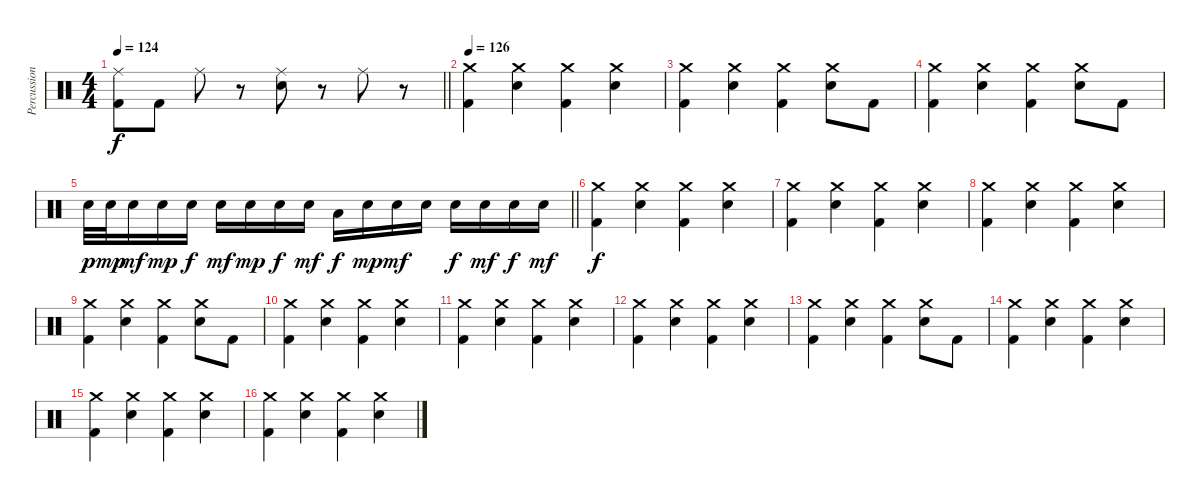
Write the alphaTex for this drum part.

\track ("Percussion" "Percussion") {instrument percussion}
\staff {score}
\articulation defaults
\ts (4 4)
\tempo 124
\clef neutral
\barLineRight lightlight
\ks c
("Ride (middle)" "Kick (hit) 2").8{dy f} "Kick (hit) 2".8 "Ride (middle)".8 r.8 ("Ride (middle)" "Electric Snare (hit)").8 r.8 "Ride (middle)".8 r.8 |
\section ("" "")
\tempo 126
("Crash medium (hit)" "Kick (hit) 2").4 ("Crash medium (hit)" "Electric Snare (hit)").4 ("Crash medium (hit)" "Kick (hit) 2").4 ("Crash medium (hit)" "Electric Snare (hit)").4 |
("Crash medium (hit)" "Kick (hit) 2").4 ("Crash medium (hit)" "Electric Snare (hit)").4 ("Crash medium (hit)" "Kick (hit) 2").4 ("Crash medium (hit)" "Electric Snare (hit)").8 "Kick (hit) 2".8 |
("Crash medium (hit)" "Kick (hit) 2").4 ("Crash medium (hit)" "Electric Snare (hit)").4 ("Crash medium (hit)" "Kick (hit) 2").4 ("Crash medium (hit)" "Electric Snare (hit)").8 "Kick (hit) 2".8 |
\barLineRight lightlight "Electric Snare (hit)".32{dy p} "Electric Snare (hit)".32{dy mp} "Electric Snare (hit)".16{dy mf} "Electric Snare (hit)".16{dy mp} "Electric Snare (hit)".16{dy f} "Electric Snare (hit)".16{dy mf} "Electric Snare (hit)".16{dy mp} "Electric Snare (hit)".16{dy f} "Electric Snare (hit)".16{dy mf} "Low Tom (hit)".16{dy f} "Electric Snare (hit)".16{dy mp} "Electric Snare (hit)".16{dy mf} "Electric Snare (hit)".16 "Electric Snare (hit)".16{dy f} "Electric Snare (hit)".16{dy mf} "Electric Snare (hit)".16{dy f} "Electric Snare (hit)".16{dy mf}
|
\section ("" "")
("Crash medium (hit)" "Kick (hit) 2").4{dy f} ("Crash medium (hit)" "Electric Snare (hit)").4 ("Crash medium (hit)" "Kick (hit) 2").4 ("Crash medium (hit)" "Electric Snare (hit)").4 |
("Crash medium (hit)" "Kick (hit) 2").4 ("Crash medium (hit)" "Electric Snare (hit)").4 ("Crash medium (hit)" "Kick (hit) 2").4 ("Crash medium (hit)" "Electric Snare (hit)").4 |
("Crash medium (hit)" "Kick (hit) 2").4 ("Crash medium (hit)" "Electric Snare (hit)").4 ("Crash medium (hit)" "Kick (hit) 2").4 ("Crash medium (hit)" "Electric Snare (hit)").4 |
("Crash medium (hit)" "Kick (hit) 2").4 ("Crash medium (hit)" "Electric Snare (hit)").4 ("Crash medium (hit)" "Kick (hit) 2").4 ("Crash medium (hit)" "Electric Snare (hit)").8 "Kick (hit) 2".8 |
("Crash medium (hit)" "Kick (hit) 2").4 ("Crash medium (hit)" "Electric Snare (hit)").4 ("Crash medium (hit)" "Kick (hit) 2").4 ("Crash medium (hit)" "Electric Snare (hit)").4 |
("Crash medium (hit)" "Kick (hit) 2").4 ("Crash medium (hit)" "Electric Snare (hit)").4 ("Crash medium (hit)" "Kick (hit) 2").4 ("Crash medium (hit)" "Electric Snare (hit)").4 |
("Crash medium (hit)" "Kick (hit) 2").4 ("Crash medium (hit)" "Electric Snare (hit)").4 ("Crash medium (hit)" "Kick (hit) 2").4 ("Crash medium (hit)" "Electric Snare (hit)").4 |
("Crash medium (hit)" "Kick (hit) 2").4 ("Crash medium (hit)" "Electric Snare (hit)").4 ("Crash medium (hit)" "Kick (hit) 2").4 ("Crash medium (hit)" "Electric Snare (hit)").8 "Kick (hit) 2".8 |
("Crash medium (hit)" "Kick (hit) 2").4 ("Crash medium (hit)" "Electric Snare (hit)").4 ("Crash medium (hit)" "Kick (hit) 2").4 ("Crash medium (hit)" "Electric Snare (hit)").4 |
("Crash medium (hit)" "Kick (hit) 2").4 ("Crash medium (hit)" "Electric Snare (hit)").4 ("Crash medium (hit)" "Kick (hit) 2").4 ("Crash medium (hit)" "Electric Snare (hit)").4 |
("Crash medium (hit)" "Kick (hit) 2").4 ("Crash medium (hit)" "Electric Snare (hit)").4 ("Crash medium (hit)" "Kick (hit) 2").4 ("Crash medium (hit)" "Electric Snare (hit)").4
